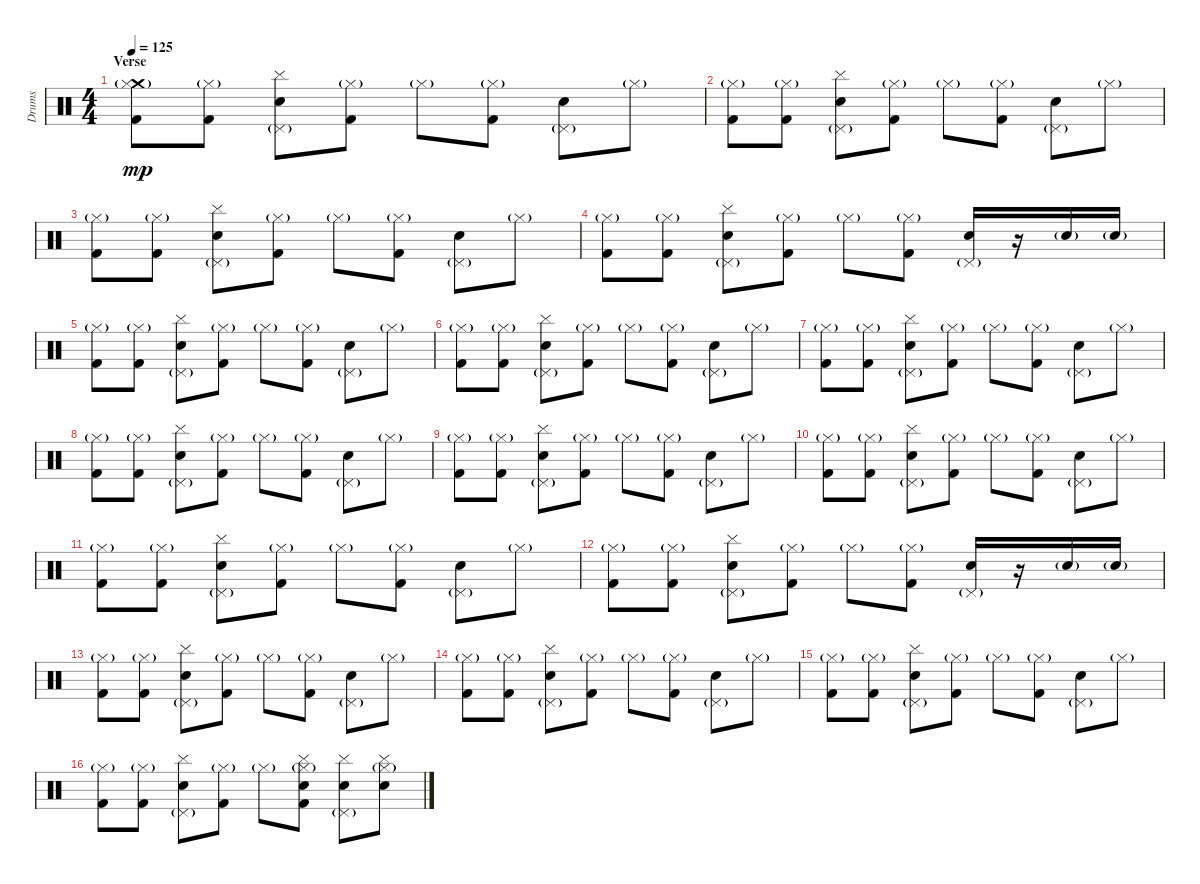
\track ("Drums" "Drums") {instrument percussion}
\staff {score}
\articulation defaults
\ts (4 4)
\section ("" "Verse")
\tempo 125
\clef neutral
\ks c
("Crash medium (hit)" "Hi-Hat (closed)"{g} "Kick (hit) 2").8{dy mp} ("Hi-Hat (closed)"{g} "Kick (hit) 2").8 ("Electric Snare (hit)" "Pedal Hi-Hat (hit)"{g} "Cymbal (hit)").8 ("Hi-Hat (closed)"{g} "Kick (hit) 2").8 "Hi-Hat (closed)"{g}.8 ("Hi-Hat (closed)"{g} "Kick (hit) 2").8 ("Electric Snare (hit)" "Pedal Hi-Hat (hit)"{g}).8 "Hi-Hat (closed)"{g}.8 |
("Hi-Hat (closed)"{g} "Kick (hit) 2").8 ("Hi-Hat (closed)"{g} "Kick (hit) 2").8 ("Electric Snare (hit)" "Pedal Hi-Hat (hit)"{g} "Cymbal (hit)").8 ("Hi-Hat (closed)"{g} "Kick (hit) 2").8 "Hi-Hat (closed)"{g}.8 ("Hi-Hat (closed)"{g} "Kick (hit) 2").8 ("Electric Snare (hit)" "Pedal Hi-Hat (hit)"{g}).8 "Hi-Hat (closed)"{g}.8 |
("Hi-Hat (closed)"{g} "Kick (hit) 2").8 ("Hi-Hat (closed)"{g} "Kick (hit) 2").8 ("Electric Snare (hit)" "Pedal Hi-Hat (hit)"{g} "Cymbal (hit)").8 ("Hi-Hat (closed)"{g} "Kick (hit) 2").8 "Hi-Hat (closed)"{g}.8 ("Hi-Hat (closed)"{g} "Kick (hit) 2").8 ("Electric Snare (hit)" "Pedal Hi-Hat (hit)"{g}).8 "Hi-Hat (closed)"{g}.8 |
("Hi-Hat (closed)"{g} "Kick (hit) 2").8 ("Hi-Hat (closed)"{g} "Kick (hit) 2").8 ("Electric Snare (hit)" "Pedal Hi-Hat (hit)"{g} "Cymbal (hit)").8 ("Hi-Hat (closed)"{g} "Kick (hit) 2").8 "Hi-Hat (closed)"{g}.8 ("Hi-Hat (closed)"{g} "Kick (hit) 2").8 ("Electric Snare (hit)" "Pedal Hi-Hat (hit)"{g}).16 r.16 "Electric Snare (hit)"{g}.16 "Electric Snare (hit)"{g}.16 |
("Hi-Hat (closed)"{g} "Kick (hit) 2").8 ("Hi-Hat (closed)"{g} "Kick (hit) 2").8 ("Electric Snare (hit)" "Pedal Hi-Hat (hit)"{g} "Cymbal (hit)").8 ("Hi-Hat (closed)"{g} "Kick (hit) 2").8 "Hi-Hat (closed)"{g}.8 ("Hi-Hat (closed)"{g} "Kick (hit) 2").8 ("Electric Snare (hit)" "Pedal Hi-Hat (hit)"{g}).8 "Hi-Hat (closed)"{g}.8 |
("Hi-Hat (closed)"{g} "Kick (hit) 2").8 ("Hi-Hat (closed)"{g} "Kick (hit) 2").8 ("Electric Snare (hit)" "Pedal Hi-Hat (hit)"{g} "Cymbal (hit)").8 ("Hi-Hat (closed)"{g} "Kick (hit) 2").8 "Hi-Hat (closed)"{g}.8 ("Hi-Hat (closed)"{g} "Kick (hit) 2").8 ("Electric Snare (hit)" "Pedal Hi-Hat (hit)"{g}).8 "Hi-Hat (closed)"{g}.8 |
("Hi-Hat (closed)"{g} "Kick (hit) 2").8 ("Hi-Hat (closed)"{g} "Kick (hit) 2").8 ("Electric Snare (hit)" "Pedal Hi-Hat (hit)"{g} "Cymbal (hit)").8 ("Hi-Hat (closed)"{g} "Kick (hit) 2").8 "Hi-Hat (closed)"{g}.8 ("Hi-Hat (closed)"{g} "Kick (hit) 2").8 ("Electric Snare (hit)" "Pedal Hi-Hat (hit)"{g}).8 "Hi-Hat (closed)"{g}.8 |
("Hi-Hat (closed)"{g} "Kick (hit) 2").8 ("Hi-Hat (closed)"{g} "Kick (hit) 2").8 ("Electric Snare (hit)" "Pedal Hi-Hat (hit)"{g} "Cymbal (hit)").8 ("Hi-Hat (closed)"{g} "Kick (hit) 2").8 "Hi-Hat (closed)"{g}.8 ("Hi-Hat (closed)"{g} "Kick (hit) 2").8 ("Electric Snare (hit)" "Pedal Hi-Hat (hit)"{g}).8 "Hi-Hat (closed)"{g}.8 |
("Hi-Hat (closed)"{g} "Kick (hit) 2").8 ("Hi-Hat (closed)"{g} "Kick (hit) 2").8 ("Electric Snare (hit)" "Pedal Hi-Hat (hit)"{g} "Cymbal (hit)").8 ("Hi-Hat (closed)"{g} "Kick (hit) 2").8 "Hi-Hat (closed)"{g}.8 ("Hi-Hat (closed)"{g} "Kick (hit) 2").8 ("Electric Snare (hit)" "Pedal Hi-Hat (hit)"{g}).8 "Hi-Hat (closed)"{g}.8 |
("Hi-Hat (closed)"{g} "Kick (hit) 2").8 ("Hi-Hat (closed)"{g} "Kick (hit) 2").8 ("Electric Snare (hit)" "Pedal Hi-Hat (hit)"{g} "Cymbal (hit)").8 ("Hi-Hat (closed)"{g} "Kick (hit) 2").8 "Hi-Hat (closed)"{g}.8 ("Hi-Hat (closed)"{g} "Kick (hit) 2").8 ("Electric Snare (hit)" "Pedal Hi-Hat (hit)"{g}).8 "Hi-Hat (closed)"{g}.8 |
("Hi-Hat (closed)"{g} "Kick (hit) 2").8 ("Hi-Hat (closed)"{g} "Kick (hit) 2").8 ("Electric Snare (hit)" "Pedal Hi-Hat (hit)"{g} "Cymbal (hit)").8 ("Hi-Hat (closed)"{g} "Kick (hit) 2").8 "Hi-Hat (closed)"{g}.8 ("Hi-Hat (closed)"{g} "Kick (hit) 2").8 ("Electric Snare (hit)" "Pedal Hi-Hat (hit)"{g}).8 "Hi-Hat (closed)"{g}.8 |
("Hi-Hat (closed)"{g} "Kick (hit) 2").8 ("Hi-Hat (closed)"{g} "Kick (hit) 2").8 ("Electric Snare (hit)" "Pedal Hi-Hat (hit)"{g} "Cymbal (hit)").8 ("Hi-Hat (closed)"{g} "Kick (hit) 2").8 "Hi-Hat (closed)"{g}.8 ("Hi-Hat (closed)"{g} "Kick (hit) 2").8 ("Electric Snare (hit)" "Pedal Hi-Hat (hit)"{g}).16 r.16 "Electric Snare (hit)"{g}.16 "Electric Snare (hit)"{g}.16 |
("Hi-Hat (closed)"{g} "Kick (hit) 2").8 ("Hi-Hat (closed)"{g} "Kick (hit) 2").8 ("Electric Snare (hit)" "Pedal Hi-Hat (hit)"{g} "Cymbal (hit)").8 ("Hi-Hat (closed)"{g} "Kick (hit) 2").8 "Hi-Hat (closed)"{g}.8 ("Hi-Hat (closed)"{g} "Kick (hit) 2").8 ("Electric Snare (hit)" "Pedal Hi-Hat (hit)"{g}).8 "Hi-Hat (closed)"{g}.8 |
("Hi-Hat (closed)"{g} "Kick (hit) 2").8 ("Hi-Hat (closed)"{g} "Kick (hit) 2").8 ("Electric Snare (hit)" "Pedal Hi-Hat (hit)"{g} "Cymbal (hit)").8 ("Hi-Hat (closed)"{g} "Kick (hit) 2").8 "Hi-Hat (closed)"{g}.8 ("Hi-Hat (closed)"{g} "Kick (hit) 2").8 ("Electric Snare (hit)" "Pedal Hi-Hat (hit)"{g}).8 "Hi-Hat (closed)"{g}.8 |
("Hi-Hat (closed)"{g} "Kick (hit) 2").8 ("Hi-Hat (closed)"{g} "Kick (hit) 2").8 ("Electric Snare (hit)" "Pedal Hi-Hat (hit)"{g} "Cymbal (hit)").8 ("Hi-Hat (closed)"{g} "Kick (hit) 2").8 "Hi-Hat (closed)"{g}.8 ("Hi-Hat (closed)"{g} "Kick (hit) 2").8 ("Electric Snare (hit)" "Pedal Hi-Hat (hit)"{g}).8 "Hi-Hat (closed)"{g}.8 |
("Hi-Hat (closed)"{g} "Kick (hit) 2").8 ("Hi-Hat (closed)"{g} "Kick (hit) 2").8 ("Electric Snare (hit)" "Pedal Hi-Hat (hit)"{g} "Cymbal (hit)").8 ("Hi-Hat (closed)"{g} "Kick (hit) 2").8 "Hi-Hat (closed)"{g}.8 ("Electric Snare (hit)" "Hi-Hat (closed)"{g} "Cymbal (hit)" "Kick (hit) 2").8 ("Electric Snare (hit)" "Pedal Hi-Hat (hit)"{g} "Cymbal (hit)").8 ("Electric Snare (hit)" "Hi-Hat (closed)"{g} "Cymbal (hit)").8
